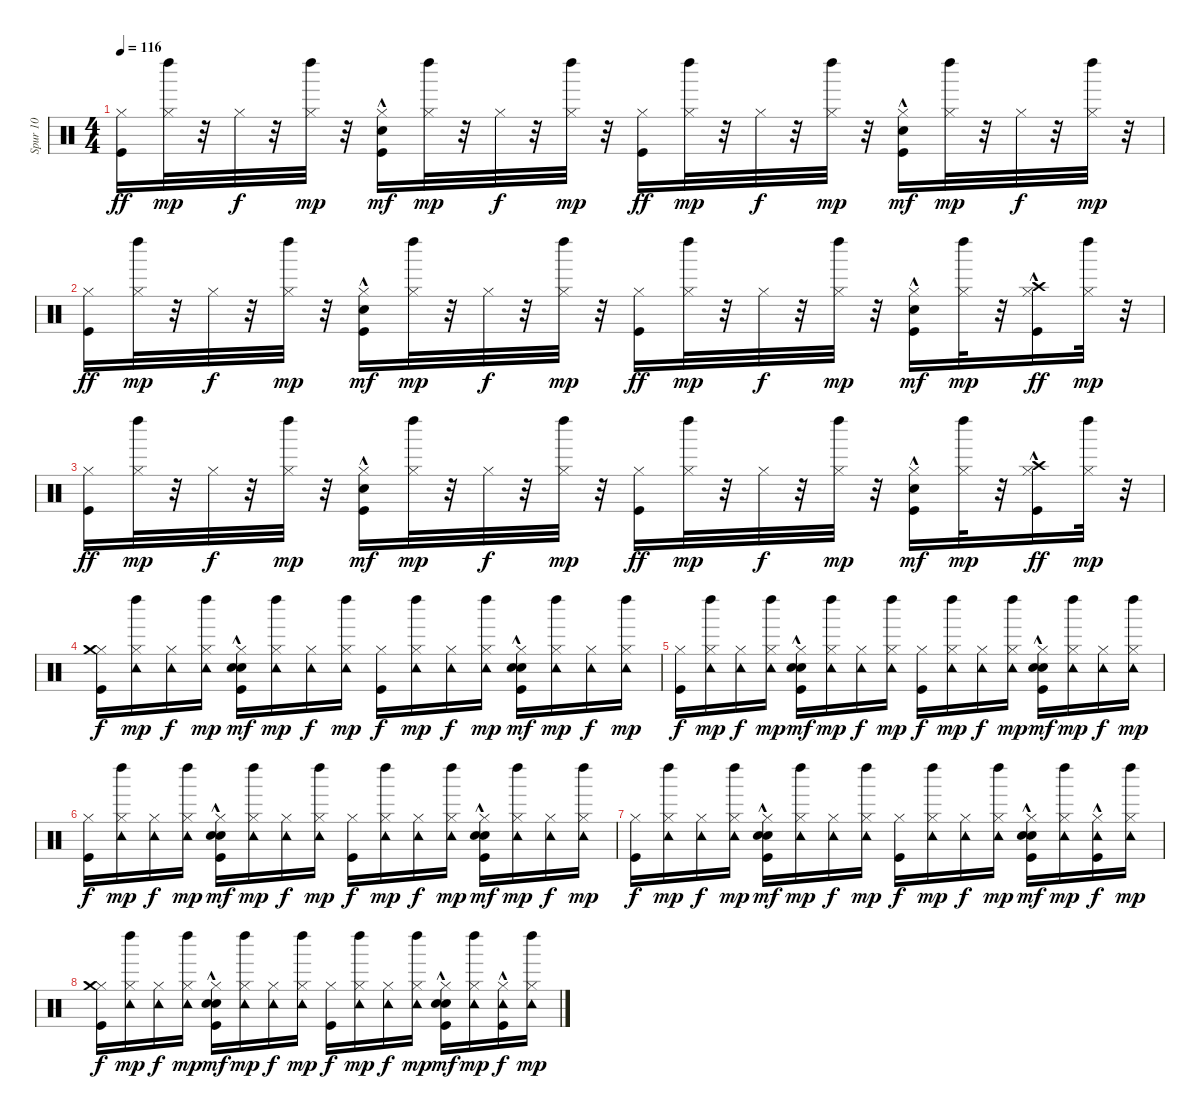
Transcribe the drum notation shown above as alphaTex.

\track ("Spur 10" "Spur 10") {instrument percussion}
\staff {score}
\articulation defaults
\ts (4 4)
\tempo 116
\clef neutral
\ks c
("Kick (hit)" "Hi-Hat (closed)").16{dy ff} ("Left Maraca (hit)" "Hi-Hat (closed)").32{dy mp} r.32 "Hi-Hat (closed)".32{dy f} r.32 ("Left Maraca (hit)" "Hi-Hat (closed)").32{dy mp} r.32 ("Kick (hit)"{hac} "Snare (hit) 2"{hac} "Hi-Hat (closed)").16{dy mf} ("Left Maraca (hit)" "Hi-Hat (closed)").32{dy mp} r.32 "Hi-Hat (closed)".32{dy f} r.32 ("Left Maraca (hit)" "Hi-Hat (closed)").32{dy mp} r.32 ("Kick (hit)" "Hi-Hat (closed)").16{dy ff} ("Left Maraca (hit)" "Hi-Hat (closed)").32{dy mp} r.32 "Hi-Hat (closed)".32{dy f} r.32 ("Left Maraca (hit)" "Hi-Hat (closed)").32{dy mp} r.32 ("Kick (hit)"{hac} "Snare (hit) 2"{hac} "Hi-Hat (closed)").16{dy mf} ("Left Maraca (hit)" "Hi-Hat (closed)").32{dy mp} r.32 "Hi-Hat (closed)".32{dy f} r.32 ("Left Maraca (hit)" "Hi-Hat (closed)").32{dy mp} r.32 |
("Kick (hit)" "Hi-Hat (closed)").16{dy ff} ("Left Maraca (hit)" "Hi-Hat (closed)").32{dy mp} r.32 "Hi-Hat (closed)".32{dy f} r.32 ("Left Maraca (hit)" "Hi-Hat (closed)").32{dy mp} r.32 ("Kick (hit)"{hac} "Snare (hit) 2"{hac} "Hi-Hat (closed)").16{dy mf} ("Left Maraca (hit)" "Hi-Hat (closed)").32{dy mp} r.32 "Hi-Hat (closed)".32{dy f} r.32 ("Left Maraca (hit)" "Hi-Hat (closed)").32{dy mp} r.32 ("Kick (hit)" "Hi-Hat (closed)").16{dy ff} ("Left Maraca (hit)" "Hi-Hat (closed)").32{dy mp} r.32 "Hi-Hat (closed)".32{dy f} r.32 ("Left Maraca (hit)" "Hi-Hat (closed)").32{dy mp} r.32 ("Kick (hit)"{hac} "Snare (hit) 2"{hac} "Hi-Hat (closed)").16{dy mf} ("Left Maraca (hit)" "Hi-Hat (closed)").32{dy mp} r.32 ("Kick (hit)"{hac} "Hi-Hat (closed)" "Crash high (hit)").16{dy ff} ("Left Maraca (hit)" "Hi-Hat (closed)").32{dy mp} r.32 |
("Kick (hit)" "Hi-Hat (closed)").16{dy ff} ("Left Maraca (hit)" "Hi-Hat (closed)").32{dy mp} r.32 "Hi-Hat (closed)".32{dy f} r.32 ("Left Maraca (hit)" "Hi-Hat (closed)").32{dy mp} r.32 ("Kick (hit)"{hac} "Snare (hit) 2"{hac} "Hi-Hat (closed)").16{dy mf} ("Left Maraca (hit)" "Hi-Hat (closed)").32{dy mp} r.32 "Hi-Hat (closed)".32{dy f} r.32 ("Left Maraca (hit)" "Hi-Hat (closed)").32{dy mp} r.32 ("Kick (hit)" "Hi-Hat (closed)").16{dy ff} ("Left Maraca (hit)" "Hi-Hat (closed)").32{dy mp} r.32 "Hi-Hat (closed)".32{dy f} r.32 ("Left Maraca (hit)" "Hi-Hat (closed)").32{dy mp} r.32 ("Kick (hit)"{hac} "Snare (hit) 2"{hac} "Hi-Hat (closed)").16{dy mf} ("Left Maraca (hit)" "Hi-Hat (closed)").32{dy mp} r.32 ("Kick (hit)"{hac} "Hi-Hat (closed)" "Crash high (hit)").16{dy ff} ("Left Maraca (hit)" "Hi-Hat (closed)").32{dy mp} r.32 |
("Kick (hit)" "Hi-Hat (closed)" "Crash medium (hit)").16{dy f} ("Left Maraca (hit)" "Hi-Hat (closed)" "Tambourine (hit)").16{dy mp} ("Hi-Hat (closed)" "Tambourine (hit)").16{dy f} ("Left Maraca (hit)" "Hi-Hat (closed)" "Tambourine (hit)").16{dy mp} ("Kick (hit)"{hac} "Snare (hit) 2"{hac} "Hi-Hat (closed)" "Hand Clap (hit)"{hac}).16{dy mf} ("Left Maraca (hit)" "Hi-Hat (closed)" "Tambourine (hit)").16{dy mp} ("Hi-Hat (closed)" "Tambourine (hit)").16{dy f} ("Left Maraca (hit)" "Hi-Hat (closed)" "Tambourine (hit)").16{dy mp} ("Kick (hit)" "Hi-Hat (closed)").16{dy f} ("Left Maraca (hit)" "Hi-Hat (closed)" "Tambourine (hit)").16{dy mp} ("Hi-Hat (closed)" "Tambourine (hit)").16{dy f} ("Left Maraca (hit)" "Hi-Hat (closed)" "Tambourine (hit)").16{dy mp} ("Kick (hit)"{hac} "Snare (hit) 2"{hac} "Hi-Hat (closed)" "Hand Clap (hit)"{hac}).16{dy mf} ("Left Maraca (hit)" "Hi-Hat (closed)" "Tambourine (hit)").16{dy mp} ("Hi-Hat (closed)" "Tambourine (hit)").16{dy f} ("Left Maraca (hit)" "Hi-Hat (closed)" "Tambourine (hit)").16{dy mp} |
("Kick (hit)" "Hi-Hat (closed)").16{dy f} ("Left Maraca (hit)" "Hi-Hat (closed)" "Tambourine (hit)").16{dy mp} ("Hi-Hat (closed)" "Tambourine (hit)").16{dy f} ("Left Maraca (hit)" "Hi-Hat (closed)" "Tambourine (hit)").16{dy mp} ("Kick (hit)"{hac} "Snare (hit) 2"{hac} "Hi-Hat (closed)" "Hand Clap (hit)"{hac}).16{dy mf} ("Left Maraca (hit)" "Hi-Hat (closed)" "Tambourine (hit)").16{dy mp} ("Hi-Hat (closed)" "Tambourine (hit)").16{dy f} ("Left Maraca (hit)" "Hi-Hat (closed)" "Tambourine (hit)").16{dy mp} ("Kick (hit)" "Hi-Hat (closed)").16{dy f} ("Left Maraca (hit)" "Hi-Hat (closed)" "Tambourine (hit)").16{dy mp} ("Hi-Hat (closed)" "Tambourine (hit)").16{dy f} ("Left Maraca (hit)" "Hi-Hat (closed)" "Tambourine (hit)").16{dy mp} ("Kick (hit)"{hac} "Snare (hit) 2"{hac} "Hi-Hat (closed)" "Hand Clap (hit)"{hac}).16{dy mf} ("Left Maraca (hit)" "Hi-Hat (closed)" "Tambourine (hit)").16{dy mp} ("Hi-Hat (closed)" "Tambourine (hit)").16{dy f} ("Left Maraca (hit)" "Hi-Hat (closed)" "Tambourine (hit)").16{dy mp} |
("Kick (hit)" "Hi-Hat (closed)").16{dy f} ("Left Maraca (hit)" "Hi-Hat (closed)" "Tambourine (hit)").16{dy mp} ("Hi-Hat (closed)" "Tambourine (hit)").16{dy f} ("Left Maraca (hit)" "Hi-Hat (closed)" "Tambourine (hit)").16{dy mp} ("Kick (hit)"{hac} "Snare (hit) 2"{hac} "Hi-Hat (closed)" "Hand Clap (hit)"{hac}).16{dy mf} ("Left Maraca (hit)" "Hi-Hat (closed)" "Tambourine (hit)").16{dy mp} ("Hi-Hat (closed)" "Tambourine (hit)").16{dy f} ("Left Maraca (hit)" "Hi-Hat (closed)" "Tambourine (hit)").16{dy mp} ("Kick (hit)" "Hi-Hat (closed)").16{dy f} ("Left Maraca (hit)" "Hi-Hat (closed)" "Tambourine (hit)").16{dy mp} ("Hi-Hat (closed)" "Tambourine (hit)").16{dy f} ("Left Maraca (hit)" "Hi-Hat (closed)" "Tambourine (hit)").16{dy mp} ("Kick (hit)"{hac} "Snare (hit) 2"{hac} "Hi-Hat (closed)" "Hand Clap (hit)"{hac}).16{dy mf} ("Left Maraca (hit)" "Hi-Hat (closed)" "Tambourine (hit)").16{dy mp} ("Hi-Hat (closed)" "Tambourine (hit)").16{dy f} ("Left Maraca (hit)" "Hi-Hat (closed)" "Tambourine (hit)").16{dy mp} |
("Kick (hit)" "Hi-Hat (closed)").16{dy f} ("Left Maraca (hit)" "Hi-Hat (closed)" "Tambourine (hit)").16{dy mp} ("Hi-Hat (closed)" "Tambourine (hit)").16{dy f} ("Left Maraca (hit)" "Hi-Hat (closed)" "Tambourine (hit)").16{dy mp} ("Kick (hit)"{hac} "Snare (hit) 2"{hac} "Hi-Hat (closed)" "Hand Clap (hit)"{hac}).16{dy mf} ("Left Maraca (hit)" "Hi-Hat (closed)" "Tambourine (hit)").16{dy mp} ("Hi-Hat (closed)" "Tambourine (hit)").16{dy f} ("Left Maraca (hit)" "Hi-Hat (closed)" "Tambourine (hit)").16{dy mp} ("Kick (hit)" "Hi-Hat (closed)").16{dy f} ("Left Maraca (hit)" "Hi-Hat (closed)" "Tambourine (hit)").16{dy mp} ("Hi-Hat (closed)" "Tambourine (hit)").16{dy f} ("Left Maraca (hit)" "Hi-Hat (closed)" "Tambourine (hit)").16{dy mp} ("Kick (hit)"{hac} "Snare (hit) 2"{hac} "Hi-Hat (closed)" "Hand Clap (hit)"{hac}).16{dy mf} ("Left Maraca (hit)" "Hi-Hat (closed)" "Tambourine (hit)").16{dy mp} ("Kick (hit)"{hac} "Hi-Hat (closed)" "Tambourine (hit)").16{dy f} ("Left Maraca (hit)" "Hi-Hat (closed)" "Tambourine (hit)").16{dy mp} |
("Kick (hit)" "Hi-Hat (closed)" "Crash medium (hit)").16{dy f} ("Left Maraca (hit)" "Hi-Hat (closed)" "Tambourine (hit)").16{dy mp} ("Hi-Hat (closed)" "Tambourine (hit)").16{dy f} ("Left Maraca (hit)" "Hi-Hat (closed)" "Tambourine (hit)").16{dy mp} ("Kick (hit)"{hac} "Snare (hit) 2"{hac} "Hi-Hat (closed)" "Hand Clap (hit)"{hac}).16{dy mf} ("Left Maraca (hit)" "Hi-Hat (closed)" "Tambourine (hit)").16{dy mp} ("Hi-Hat (closed)" "Tambourine (hit)").16{dy f} ("Left Maraca (hit)" "Hi-Hat (closed)" "Tambourine (hit)").16{dy mp} ("Kick (hit)" "Hi-Hat (closed)").16{dy f} ("Left Maraca (hit)" "Hi-Hat (closed)" "Tambourine (hit)").16{dy mp} ("Hi-Hat (closed)" "Tambourine (hit)").16{dy f} ("Left Maraca (hit)" "Hi-Hat (closed)" "Tambourine (hit)").16{dy mp} ("Kick (hit)"{hac} "Snare (hit) 2"{hac} "Hi-Hat (closed)" "Hand Clap (hit)"{hac}).16{dy mf} ("Left Maraca (hit)" "Hi-Hat (closed)" "Tambourine (hit)").16{dy mp} ("Kick (hit)"{hac} "Hi-Hat (closed)" "Tambourine (hit)").16{dy f} ("Left Maraca (hit)" "Hi-Hat (closed)" "Tambourine (hit)").16{dy mp}
